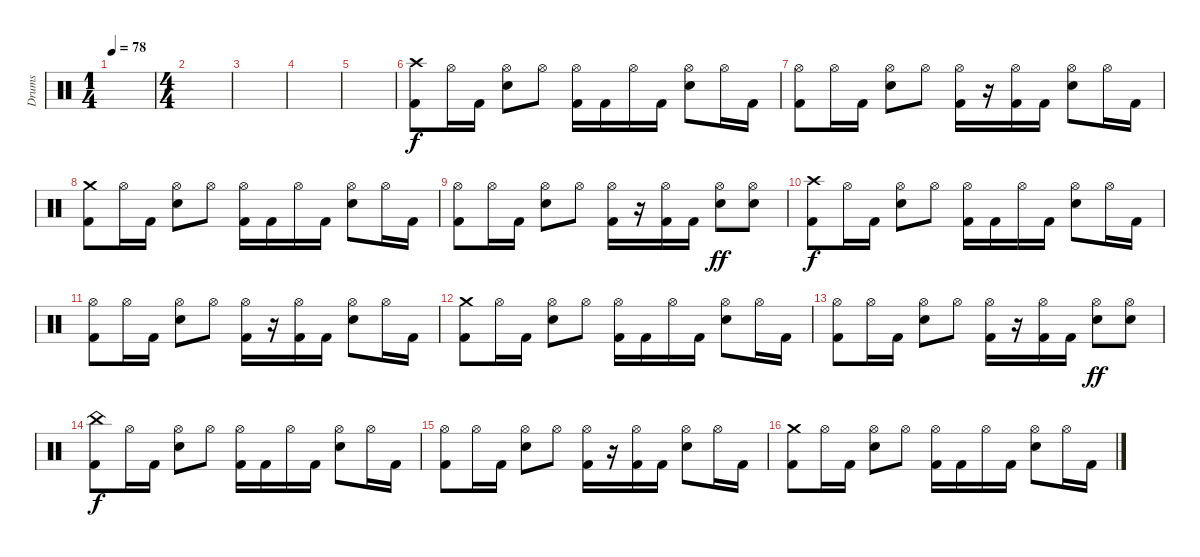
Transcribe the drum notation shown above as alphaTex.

\track ("Drums" "Drums") {instrument percussion}
\staff {score}
\articulation defaults
\ts (1 4)
\tempo 78
\clef neutral
\ks c
|
\ts (4 4)
|
|
|
|
("Crash high (hit)" "Kick (hit) 2").8 "Hi-Hat (open)".16 "Kick (hit) 2".16 ("Hi-Hat (open)" "Electric Snare (hit)").8 "Hi-Hat (open)".8 ("Hi-Hat (open)" "Kick (hit) 2").16 "Kick (hit) 2".16 "Hi-Hat (open)".16 "Kick (hit) 2".16 ("Hi-Hat (open)" "Electric Snare (hit)").8 "Hi-Hat (open)".16 "Kick (hit) 2".16 |
("Hi-Hat (open)" "Kick (hit) 2").8 "Hi-Hat (open)".16 "Kick (hit) 2".16 ("Hi-Hat (open)" "Electric Snare (hit)").8 "Hi-Hat (open)".8 ("Hi-Hat (open)" "Kick (hit) 2").16 r.16 ("Hi-Hat (open)" "Kick (hit) 2").16 "Kick (hit) 2".16 ("Hi-Hat (open)" "Electric Snare (hit)").8 "Hi-Hat (open)".16 "Kick (hit) 2".16 |
("Crash medium (hit)" "Kick (hit) 2").8 "Hi-Hat (open)".16 "Kick (hit) 2".16 ("Hi-Hat (open)" "Electric Snare (hit)").8 "Hi-Hat (open)".8 ("Hi-Hat (open)" "Kick (hit) 2").16 "Kick (hit) 2".16 "Hi-Hat (open)".16 "Kick (hit) 2".16 ("Hi-Hat (open)" "Electric Snare (hit)").8 "Hi-Hat (open)".16 "Kick (hit) 2".16 |
("Hi-Hat (open)" "Kick (hit) 2").8 "Hi-Hat (open)".16 "Kick (hit) 2".16 ("Hi-Hat (open)" "Electric Snare (hit)").8 "Hi-Hat (open)".8 ("Hi-Hat (open)" "Kick (hit) 2").16 r.16 ("Hi-Hat (open)" "Kick (hit) 2").16 "Kick (hit) 2".16 ("Hi-Hat (open)" "Electric Snare (hit)").8{dy ff} ("Hi-Hat (open)" "Electric Snare (hit)").8 |
("Crash high (hit)" "Kick (hit) 2").8{dy f} "Hi-Hat (open)".16 "Kick (hit) 2".16 ("Hi-Hat (open)" "Electric Snare (hit)").8 "Hi-Hat (open)".8 ("Hi-Hat (open)" "Kick (hit) 2").16 "Kick (hit) 2".16 "Hi-Hat (open)".16 "Kick (hit) 2".16 ("Hi-Hat (open)" "Electric Snare (hit)").8 "Hi-Hat (open)".16 "Kick (hit) 2".16 |
("Hi-Hat (open)" "Kick (hit) 2").8 "Hi-Hat (open)".16 "Kick (hit) 2".16 ("Hi-Hat (open)" "Electric Snare (hit)").8 "Hi-Hat (open)".8 ("Hi-Hat (open)" "Kick (hit) 2").16 r.16 ("Hi-Hat (open)" "Kick (hit) 2").16 "Kick (hit) 2".16 ("Hi-Hat (open)" "Electric Snare (hit)").8 "Hi-Hat (open)".16 "Kick (hit) 2".16 |
("Crash medium (hit)" "Kick (hit) 2").8 "Hi-Hat (open)".16 "Kick (hit) 2".16 ("Hi-Hat (open)" "Electric Snare (hit)").8 "Hi-Hat (open)".8 ("Hi-Hat (open)" "Kick (hit) 2").16 "Kick (hit) 2".16 "Hi-Hat (open)".16 "Kick (hit) 2".16 ("Hi-Hat (open)" "Electric Snare (hit)").8 "Hi-Hat (open)".16 "Kick (hit) 2".16 |
("Hi-Hat (open)" "Kick (hit) 2").8 "Hi-Hat (open)".16 "Kick (hit) 2".16 ("Hi-Hat (open)" "Electric Snare (hit)").8 "Hi-Hat (open)".8 ("Hi-Hat (open)" "Kick (hit) 2").16 r.16 ("Hi-Hat (open)" "Kick (hit) 2").16 "Kick (hit) 2".16 ("Hi-Hat (open)" "Electric Snare (hit)").8{dy ff} ("Hi-Hat (open)" "Electric Snare (hit)").8 |
("China (hit)" "Kick (hit) 2").8{dy f} "Hi-Hat (open)".16 "Kick (hit) 2".16 ("Hi-Hat (open)" "Electric Snare (hit)").8 "Hi-Hat (open)".8 ("Hi-Hat (open)" "Kick (hit) 2").16 "Kick (hit) 2".16 "Hi-Hat (open)".16 "Kick (hit) 2".16 ("Hi-Hat (open)" "Electric Snare (hit)").8 "Hi-Hat (open)".16 "Kick (hit) 2".16 |
("Hi-Hat (open)" "Kick (hit) 2").8 "Hi-Hat (open)".16 "Kick (hit) 2".16 ("Hi-Hat (open)" "Electric Snare (hit)").8 "Hi-Hat (open)".8 ("Hi-Hat (open)" "Kick (hit) 2").16 r.16 ("Hi-Hat (open)" "Kick (hit) 2").16 "Kick (hit) 2".16 ("Hi-Hat (open)" "Electric Snare (hit)").8 "Hi-Hat (open)".16 "Kick (hit) 2".16 |
("Crash medium (hit)" "Kick (hit) 2").8 "Hi-Hat (open)".16 "Kick (hit) 2".16 ("Hi-Hat (open)" "Electric Snare (hit)").8 "Hi-Hat (open)".8 ("Hi-Hat (open)" "Kick (hit) 2").16 "Kick (hit) 2".16 "Hi-Hat (open)".16 "Kick (hit) 2".16 ("Hi-Hat (open)" "Electric Snare (hit)").8 "Hi-Hat (open)".16 "Kick (hit) 2".16
